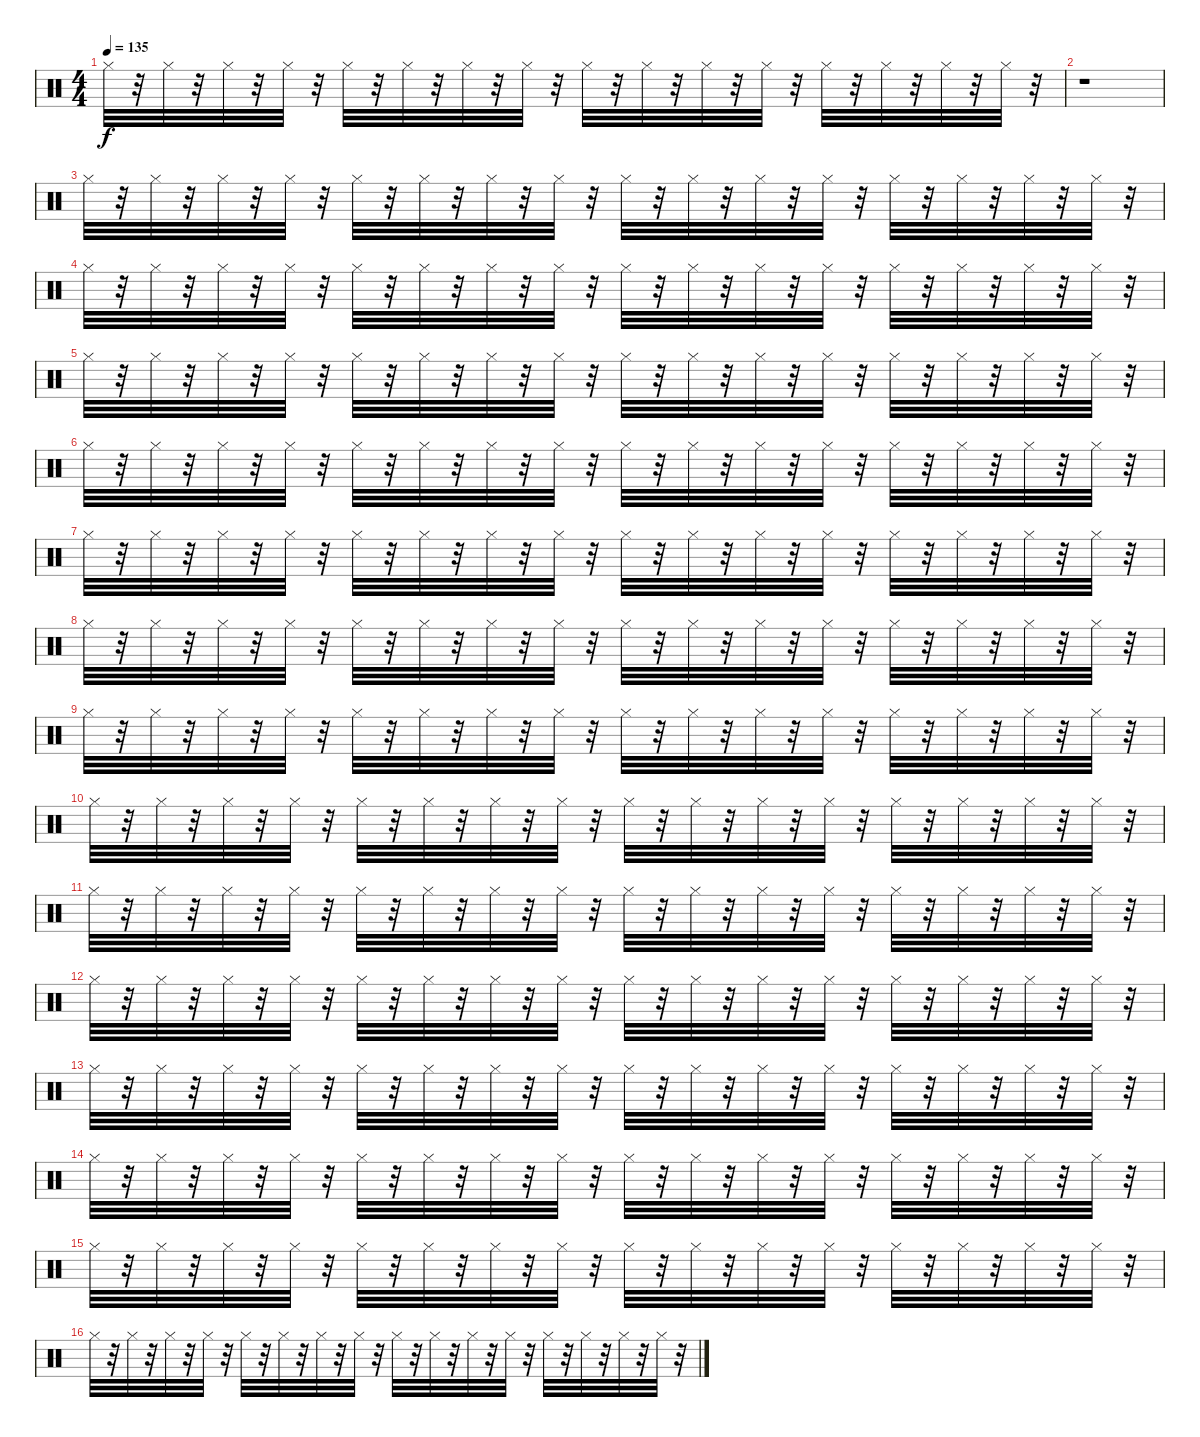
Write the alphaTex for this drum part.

\track "" {instrument percussion}
\staff {score}
\articulation defaults
\ts (4 4)
\tempo 135
\clef neutral
\ks c "Hi-Hat (closed)".32{dy f}
r.32 "Hi-Hat (closed)".32 r.32 "Hi-Hat (closed)".32 r.32 "Hi-Hat (closed)".32 r.32 "Hi-Hat (closed)".32 r.32 "Hi-Hat (closed)".32 r.32 "Hi-Hat (closed)".32 r.32 "Hi-Hat (closed)".32 r.32 "Hi-Hat (closed)".32 r.32 "Hi-Hat (closed)".32 r.32 "Hi-Hat (closed)".32 r.32 "Hi-Hat (closed)".32 r.32 "Hi-Hat (closed)".32 r.32 "Hi-Hat (closed)".32 r.32 "Hi-Hat (closed)".32 r.32 "Hi-Hat (closed)".32 r.32 |
r.1 |
"Hi-Hat (closed)".32 r.32 "Hi-Hat (closed)".32 r.32 "Hi-Hat (closed)".32 r.32 "Hi-Hat (closed)".32 r.32 "Hi-Hat (closed)".32 r.32 "Hi-Hat (closed)".32 r.32 "Hi-Hat (closed)".32 r.32 "Hi-Hat (closed)".32 r.32 "Hi-Hat (closed)".32 r.32 "Hi-Hat (closed)".32 r.32 "Hi-Hat (closed)".32 r.32 "Hi-Hat (closed)".32 r.32 "Hi-Hat (closed)".32 r.32 "Hi-Hat (closed)".32 r.32 "Hi-Hat (closed)".32 r.32 "Hi-Hat (closed)".32 r.32 |
"Hi-Hat (closed)".32 r.32 "Hi-Hat (closed)".32 r.32 "Hi-Hat (closed)".32 r.32 "Hi-Hat (closed)".32 r.32 "Hi-Hat (closed)".32 r.32 "Hi-Hat (closed)".32 r.32 "Hi-Hat (closed)".32 r.32 "Hi-Hat (closed)".32 r.32 "Hi-Hat (closed)".32 r.32 "Hi-Hat (closed)".32 r.32 "Hi-Hat (closed)".32 r.32 "Hi-Hat (closed)".32 r.32 "Hi-Hat (closed)".32 r.32 "Hi-Hat (closed)".32 r.32 "Hi-Hat (closed)".32 r.32 "Hi-Hat (closed)".32 r.32 |
"Hi-Hat (closed)".32 r.32 "Hi-Hat (closed)".32 r.32 "Hi-Hat (closed)".32 r.32 "Hi-Hat (closed)".32 r.32 "Hi-Hat (closed)".32 r.32 "Hi-Hat (closed)".32 r.32 "Hi-Hat (closed)".32 r.32 "Hi-Hat (closed)".32 r.32 "Hi-Hat (closed)".32 r.32 "Hi-Hat (closed)".32 r.32 "Hi-Hat (closed)".32 r.32 "Hi-Hat (closed)".32 r.32 "Hi-Hat (closed)".32 r.32 "Hi-Hat (closed)".32 r.32 "Hi-Hat (closed)".32 r.32 "Hi-Hat (closed)".32 r.32 |
"Hi-Hat (closed)".32 r.32 "Hi-Hat (closed)".32 r.32 "Hi-Hat (closed)".32 r.32 "Hi-Hat (closed)".32 r.32 "Hi-Hat (closed)".32 r.32 "Hi-Hat (closed)".32 r.32 "Hi-Hat (closed)".32 r.32 "Hi-Hat (closed)".32 r.32 "Hi-Hat (closed)".32 r.32 "Hi-Hat (closed)".32 r.32 "Hi-Hat (closed)".32 r.32 "Hi-Hat (closed)".32 r.32 "Hi-Hat (closed)".32 r.32 "Hi-Hat (closed)".32 r.32 "Hi-Hat (closed)".32 r.32 "Hi-Hat (closed)".32 r.32 |
"Hi-Hat (closed)".32 r.32 "Hi-Hat (closed)".32 r.32 "Hi-Hat (closed)".32 r.32 "Hi-Hat (closed)".32 r.32 "Hi-Hat (closed)".32 r.32 "Hi-Hat (closed)".32 r.32 "Hi-Hat (closed)".32 r.32 "Hi-Hat (closed)".32 r.32 "Hi-Hat (closed)".32 r.32 "Hi-Hat (closed)".32 r.32 "Hi-Hat (closed)".32 r.32 "Hi-Hat (closed)".32 r.32 "Hi-Hat (closed)".32 r.32 "Hi-Hat (closed)".32 r.32 "Hi-Hat (closed)".32 r.32 "Hi-Hat (closed)".32 r.32 |
"Hi-Hat (closed)".32 r.32 "Hi-Hat (closed)".32 r.32 "Hi-Hat (closed)".32 r.32 "Hi-Hat (closed)".32 r.32 "Hi-Hat (closed)".32 r.32 "Hi-Hat (closed)".32 r.32 "Hi-Hat (closed)".32 r.32 "Hi-Hat (closed)".32 r.32 "Hi-Hat (closed)".32 r.32 "Hi-Hat (closed)".32 r.32 "Hi-Hat (closed)".32 r.32 "Hi-Hat (closed)".32 r.32 "Hi-Hat (closed)".32 r.32 "Hi-Hat (closed)".32 r.32 "Hi-Hat (closed)".32 r.32 "Hi-Hat (closed)".32 r.32 |
"Hi-Hat (closed)".32 r.32 "Hi-Hat (closed)".32 r.32 "Hi-Hat (closed)".32 r.32 "Hi-Hat (closed)".32 r.32 "Hi-Hat (closed)".32 r.32 "Hi-Hat (closed)".32 r.32 "Hi-Hat (closed)".32 r.32 "Hi-Hat (closed)".32 r.32 "Hi-Hat (closed)".32 r.32 "Hi-Hat (closed)".32 r.32 "Hi-Hat (closed)".32 r.32 "Hi-Hat (closed)".32 r.32 "Hi-Hat (closed)".32 r.32 "Hi-Hat (closed)".32 r.32 "Hi-Hat (closed)".32 r.32 "Hi-Hat (closed)".32 r.32 |
"Hi-Hat (closed)".32 r.32 "Hi-Hat (closed)".32 r.32 "Hi-Hat (closed)".32 r.32 "Hi-Hat (closed)".32 r.32 "Hi-Hat (closed)".32 r.32 "Hi-Hat (closed)".32 r.32 "Hi-Hat (closed)".32 r.32 "Hi-Hat (closed)".32 r.32 "Hi-Hat (closed)".32 r.32 "Hi-Hat (closed)".32 r.32 "Hi-Hat (closed)".32 r.32 "Hi-Hat (closed)".32 r.32 "Hi-Hat (closed)".32 r.32 "Hi-Hat (closed)".32 r.32 "Hi-Hat (closed)".32 r.32 "Hi-Hat (closed)".32 r.32 |
"Hi-Hat (closed)".32 r.32 "Hi-Hat (closed)".32 r.32 "Hi-Hat (closed)".32 r.32 "Hi-Hat (closed)".32 r.32 "Hi-Hat (closed)".32 r.32 "Hi-Hat (closed)".32 r.32 "Hi-Hat (closed)".32 r.32 "Hi-Hat (closed)".32 r.32 "Hi-Hat (closed)".32 r.32 "Hi-Hat (closed)".32 r.32 "Hi-Hat (closed)".32 r.32 "Hi-Hat (closed)".32 r.32 "Hi-Hat (closed)".32 r.32 "Hi-Hat (closed)".32 r.32 "Hi-Hat (closed)".32 r.32 "Hi-Hat (closed)".32 r.32 |
"Hi-Hat (closed)".32 r.32 "Hi-Hat (closed)".32 r.32 "Hi-Hat (closed)".32 r.32 "Hi-Hat (closed)".32 r.32 "Hi-Hat (closed)".32 r.32 "Hi-Hat (closed)".32 r.32 "Hi-Hat (closed)".32 r.32 "Hi-Hat (closed)".32 r.32 "Hi-Hat (closed)".32 r.32 "Hi-Hat (closed)".32 r.32 "Hi-Hat (closed)".32 r.32 "Hi-Hat (closed)".32 r.32 "Hi-Hat (closed)".32 r.32 "Hi-Hat (closed)".32 r.32 "Hi-Hat (closed)".32 r.32 "Hi-Hat (closed)".32 r.32 |
"Hi-Hat (closed)".32 r.32 "Hi-Hat (closed)".32 r.32 "Hi-Hat (closed)".32 r.32 "Hi-Hat (closed)".32 r.32 "Hi-Hat (closed)".32 r.32 "Hi-Hat (closed)".32 r.32 "Hi-Hat (closed)".32 r.32 "Hi-Hat (closed)".32 r.32 "Hi-Hat (closed)".32 r.32 "Hi-Hat (closed)".32 r.32 "Hi-Hat (closed)".32 r.32 "Hi-Hat (closed)".32 r.32 "Hi-Hat (closed)".32 r.32 "Hi-Hat (closed)".32 r.32 "Hi-Hat (closed)".32 r.32 "Hi-Hat (closed)".32 r.32 |
"Hi-Hat (closed)".32 r.32 "Hi-Hat (closed)".32 r.32 "Hi-Hat (closed)".32 r.32 "Hi-Hat (closed)".32 r.32 "Hi-Hat (closed)".32 r.32 "Hi-Hat (closed)".32 r.32 "Hi-Hat (closed)".32 r.32 "Hi-Hat (closed)".32 r.32 "Hi-Hat (closed)".32 r.32 "Hi-Hat (closed)".32 r.32 "Hi-Hat (closed)".32 r.32 "Hi-Hat (closed)".32 r.32 "Hi-Hat (closed)".32 r.32 "Hi-Hat (closed)".32 r.32 "Hi-Hat (closed)".32 r.32 "Hi-Hat (closed)".32 r.32 |
"Hi-Hat (closed)".32 r.32 "Hi-Hat (closed)".32 r.32 "Hi-Hat (closed)".32 r.32 "Hi-Hat (closed)".32 r.32 "Hi-Hat (closed)".32 r.32 "Hi-Hat (closed)".32 r.32 "Hi-Hat (closed)".32 r.32 "Hi-Hat (closed)".32 r.32 "Hi-Hat (closed)".32 r.32 "Hi-Hat (closed)".32 r.32 "Hi-Hat (closed)".32 r.32 "Hi-Hat (closed)".32 r.32 "Hi-Hat (closed)".32 r.32 "Hi-Hat (closed)".32 r.32 "Hi-Hat (closed)".32 r.32 "Hi-Hat (closed)".32 r.32 |
"Hi-Hat (closed)".32 r.32 "Hi-Hat (closed)".32 r.32 "Hi-Hat (closed)".32 r.32 "Hi-Hat (closed)".32 r.32 "Hi-Hat (closed)".32 r.32 "Hi-Hat (closed)".32 r.32 "Hi-Hat (closed)".32 r.32 "Hi-Hat (closed)".32 r.32 "Hi-Hat (closed)".32 r.32 "Hi-Hat (closed)".32 r.32 "Hi-Hat (closed)".32 r.32 "Hi-Hat (closed)".32 r.32 "Hi-Hat (closed)".32 r.32 "Hi-Hat (closed)".32 r.32 "Hi-Hat (closed)".32 r.32 "Hi-Hat (closed)".32 r.32
